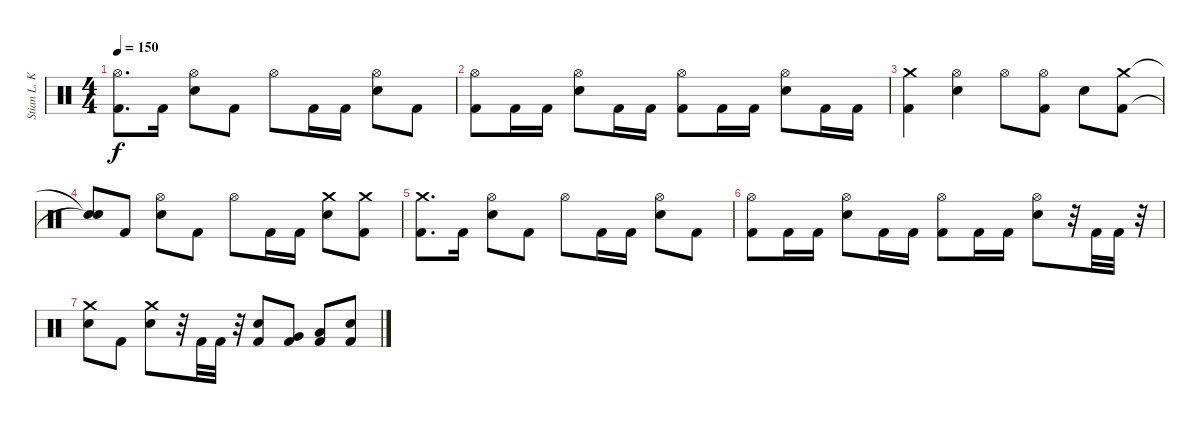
\track ("Stian L. Kristoffersen" "Stian L. K") {instrument percussion}
\staff {score}
\articulation defaults
\ts (4 4)
\tempo 150
\clef neutral
\ks c
("Hi-Hat (open)" "Kick (hit) 2").8{d dy f} "Kick (hit) 2".16 ("Hi-Hat (open)" "Electric Snare (hit)").8 "Kick (hit) 2".8 "Hi-Hat (open)".8 "Kick (hit) 2".16 "Kick (hit) 2".16 ("Hi-Hat (open)" "Electric Snare (hit)").8 "Kick (hit) 2".8 |
("Hi-Hat (open)" "Kick (hit) 2").8 "Kick (hit) 2".16 "Kick (hit) 2".16 ("Hi-Hat (open)" "Electric Snare (hit)").8 "Kick (hit) 2".16 "Kick (hit) 2".16 ("Hi-Hat (open)" "Kick (hit) 2").8 "Kick (hit) 2".16 "Kick (hit) 2".16 ("Hi-Hat (open)" "Electric Snare (hit)").8 "Kick (hit) 2".16 "Kick (hit) 2".16 |
("Crash medium (hit)" "Kick (hit) 2").4 ("Hi-Hat (open)" "Electric Snare (hit)").4 "Hi-Hat (open)".8 ("Hi-Hat (open)" "Kick (hit) 2").8 "Electric Snare (hit)".8 ("Crash medium (hit)" "Kick (hit) 2").8 |
("Snare (hit)"{t} "Snare (hit)"{t}).8 "Kick (hit) 2".8 ("Hi-Hat (open)" "Electric Snare (hit)").8 "Kick (hit) 2".8 "Hi-Hat (open)".8 "Kick (hit) 2".16 "Kick (hit) 2".16 ("Crash medium (hit)" "Electric Snare (hit)").8 ("Crash medium (hit)" "Kick (hit) 2").8 |
("Crash medium (hit)" "Kick (hit) 2").8{d} "Kick (hit) 2".16 ("Hi-Hat (open)" "Electric Snare (hit)").8 "Kick (hit) 2".8 "Hi-Hat (open)".8 "Kick (hit) 2".16 "Kick (hit) 2".16 ("Hi-Hat (open)" "Electric Snare (hit)").8 "Kick (hit) 2".8 |
("Hi-Hat (open)" "Kick (hit) 2").8 "Kick (hit) 2".16 "Kick (hit) 2".16 ("Hi-Hat (open)" "Electric Snare (hit)").8 "Kick (hit) 2".16 "Kick (hit) 2".16 ("Hi-Hat (open)" "Kick (hit) 2").8 "Kick (hit) 2".16 "Kick (hit) 2".16 ("Hi-Hat (open)" "Electric Snare (hit)").8 r.32 "Kick (hit) 2".32 "Kick (hit) 2".32 r.32 |
("Crash medium (hit)" "Electric Snare (hit)").8 "Kick (hit) 2".8 ("Crash medium (hit)" "Electric Snare (hit)").8 r.32 "Kick (hit) 2".32 "Kick (hit) 2".32 r.32 ("Electric Snare (hit)" "Kick (hit) 2").8 ("Very Low Tom (hit)" "Kick (hit) 2").8 ("Low Floor Tom (hit)" "Kick (hit) 2").8 ("Electric Snare (hit)" "Kick (hit) 2").8
